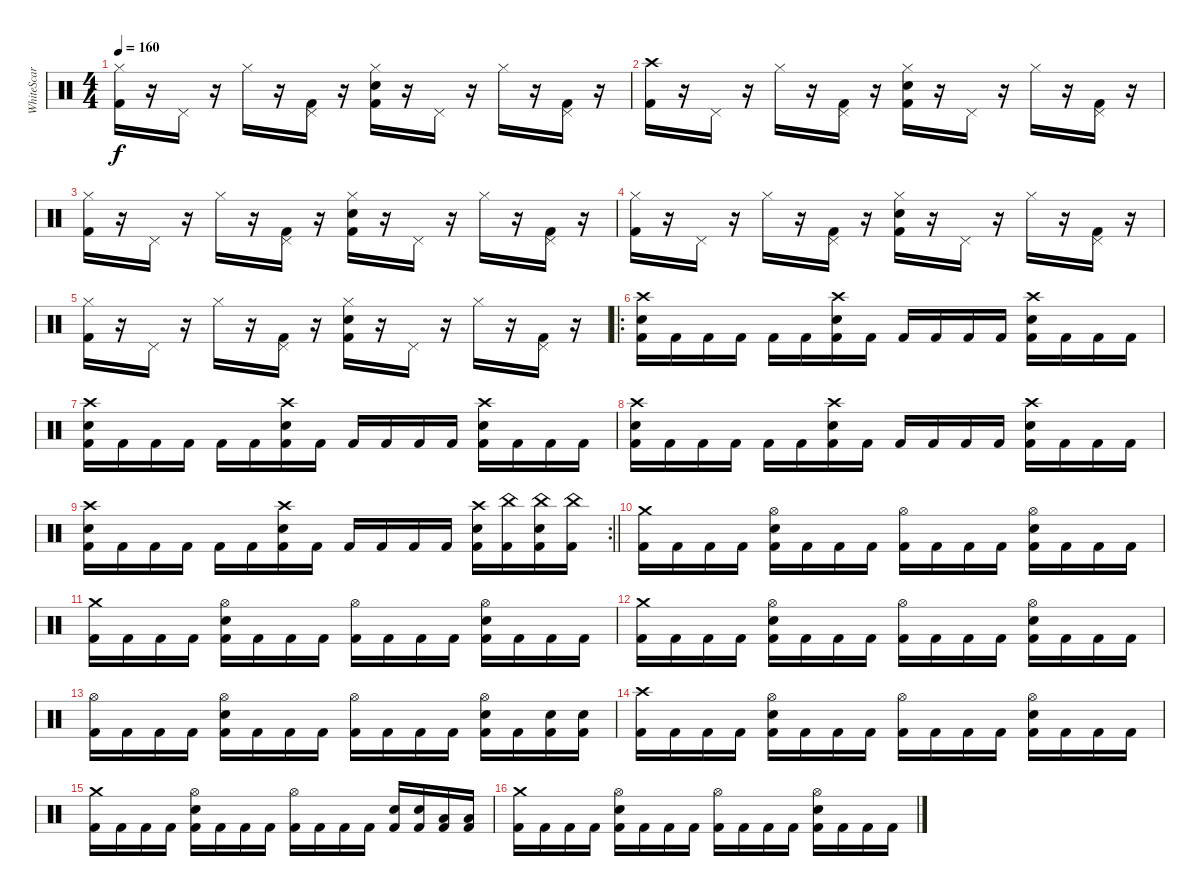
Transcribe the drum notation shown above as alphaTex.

\track ("WhiteScar" "WhiteScar") {instrument percussion}
\staff {score}
\articulation defaults
\ts (4 4)
\tempo 160
\clef neutral
\ks c
("Hi-Hat (closed)" "Kick (hit) 2").16{dy f} r.16 "Pedal Hi-Hat (hit)".16 r.16 "Hi-Hat (closed)".16 r.16 ("Pedal Hi-Hat (hit)" "Kick (hit) 2").16 r.16 ("Hi-Hat (closed)" "Snare (hit) 2" "Kick (hit) 2").16 r.16 "Pedal Hi-Hat (hit)".16 r.16 "Hi-Hat (closed)".16 r.16 ("Pedal Hi-Hat (hit)" "Kick (hit) 2").16 r.16 |
("Crash high (hit)" "Kick (hit) 2").16 r.16 "Pedal Hi-Hat (hit)".16 r.16 "Hi-Hat (closed)".16 r.16 ("Pedal Hi-Hat (hit)" "Kick (hit) 2").16 r.16 ("Hi-Hat (closed)" "Snare (hit) 2" "Kick (hit) 2").16 r.16 "Pedal Hi-Hat (hit)".16 r.16 "Hi-Hat (closed)".16 r.16 ("Pedal Hi-Hat (hit)" "Kick (hit) 2").16 r.16 |
("Hi-Hat (closed)" "Kick (hit) 2").16 r.16 "Pedal Hi-Hat (hit)".16 r.16 "Hi-Hat (closed)".16 r.16 ("Pedal Hi-Hat (hit)" "Kick (hit) 2").16 r.16 ("Hi-Hat (closed)" "Snare (hit) 2" "Kick (hit) 2").16 r.16 "Pedal Hi-Hat (hit)".16 r.16 "Hi-Hat (closed)".16 r.16 ("Pedal Hi-Hat (hit)" "Kick (hit) 2").16 r.16 |
("Hi-Hat (closed)" "Kick (hit) 2").16 r.16 "Pedal Hi-Hat (hit)".16 r.16 "Hi-Hat (closed)".16 r.16 ("Pedal Hi-Hat (hit)" "Kick (hit) 2").16 r.16 ("Hi-Hat (closed)" "Snare (hit) 2" "Kick (hit) 2").16 r.16 "Pedal Hi-Hat (hit)".16 r.16 "Hi-Hat (closed)".16 r.16 ("Pedal Hi-Hat (hit)" "Kick (hit) 2").16 r.16 |
("Hi-Hat (closed)" "Kick (hit) 2").16 r.16 "Pedal Hi-Hat (hit)".16 r.16 "Hi-Hat (closed)".16 r.16 ("Pedal Hi-Hat (hit)" "Kick (hit) 2").16 r.16 ("Hi-Hat (closed)" "Snare (hit) 2" "Kick (hit) 2").16 r.16 "Pedal Hi-Hat (hit)".16 r.16 "Hi-Hat (closed)".16 r.16 ("Pedal Hi-Hat (hit)" "Kick (hit) 2").16 r.16 |
\ro
("Crash high (hit)" "Snare (hit) 2" "Kick (hit) 2").16 "Kick (hit) 2".16 "Kick (hit) 2".16 "Kick (hit) 2".16 "Kick (hit) 2".16 "Kick (hit) 2".16 ("Crash high (hit)" "Snare (hit) 2" "Kick (hit) 2").16 "Kick (hit) 2".16 "Kick (hit) 2".16 "Kick (hit) 2".16 "Kick (hit) 2".16 "Kick (hit) 2".16 ("Crash high (hit)" "Snare (hit) 2" "Kick (hit) 2").16 "Kick (hit) 2".16 "Kick (hit) 2".16 "Kick (hit) 2".16 |
("Crash high (hit)" "Snare (hit) 2" "Kick (hit) 2").16 "Kick (hit) 2".16 "Kick (hit) 2".16 "Kick (hit) 2".16 "Kick (hit) 2".16 "Kick (hit) 2".16 ("Crash high (hit)" "Snare (hit) 2" "Kick (hit) 2").16 "Kick (hit) 2".16 "Kick (hit) 2".16 "Kick (hit) 2".16 "Kick (hit) 2".16 "Kick (hit) 2".16 ("Crash high (hit)" "Snare (hit) 2" "Kick (hit) 2").16 "Kick (hit) 2".16 "Kick (hit) 2".16 "Kick (hit) 2".16 |
("Crash high (hit)" "Snare (hit) 2" "Kick (hit) 2").16 "Kick (hit) 2".16 "Kick (hit) 2".16 "Kick (hit) 2".16 "Kick (hit) 2".16 "Kick (hit) 2".16 ("Crash high (hit)" "Snare (hit) 2" "Kick (hit) 2").16 "Kick (hit) 2".16 "Kick (hit) 2".16 "Kick (hit) 2".16 "Kick (hit) 2".16 "Kick (hit) 2".16 ("Crash high (hit)" "Snare (hit) 2" "Kick (hit) 2").16 "Kick (hit) 2".16 "Kick (hit) 2".16 "Kick (hit) 2".16 |
\rc 2
\barLineRight lightlight
("Crash high (hit)" "Snare (hit) 2" "Kick (hit) 2").16 "Kick (hit) 2".16 "Kick (hit) 2".16 "Kick (hit) 2".16 "Kick (hit) 2".16 "Kick (hit) 2".16 ("Crash high (hit)" "Snare (hit) 2" "Kick (hit) 2").16 "Kick (hit) 2".16 "Kick (hit) 2".16 "Kick (hit) 2".16 "Kick (hit) 2".16 "Kick (hit) 2".16 ("Crash high (hit)" "Snare (hit) 2" "Kick (hit) 2").16 ("China (hit)" "Kick (hit) 2").16 ("China (hit)" "Snare (hit) 2" "Kick (hit) 2").16 ("China (hit)" "Kick (hit) 2").16 |
("Crash medium (hit)" "Kick (hit) 2").16 "Kick (hit) 2".16 "Kick (hit) 2".16 "Kick (hit) 2".16 ("Hi-Hat (open)" "Snare (hit) 2" "Kick (hit) 2").16 "Kick (hit) 2".16 "Kick (hit) 2".16 "Kick (hit) 2".16 ("Hi-Hat (open)" "Kick (hit) 2").16 "Kick (hit) 2".16 "Kick (hit) 2".16 "Kick (hit) 2".16 ("Hi-Hat (open)" "Snare (hit) 2" "Kick (hit) 2").16 "Kick (hit) 2".16 "Kick (hit) 2".16 "Kick (hit) 2".16 |
("Crash medium (hit)" "Kick (hit) 2").16 "Kick (hit) 2".16 "Kick (hit) 2".16 "Kick (hit) 2".16 ("Hi-Hat (open)" "Snare (hit) 2" "Kick (hit) 2").16 "Kick (hit) 2".16 "Kick (hit) 2".16 "Kick (hit) 2".16 ("Hi-Hat (open)" "Kick (hit) 2").16 "Kick (hit) 2".16 "Kick (hit) 2".16 "Kick (hit) 2".16 ("Hi-Hat (open)" "Snare (hit) 2" "Kick (hit) 2").16 "Kick (hit) 2".16 "Kick (hit) 2".16 "Kick (hit) 2".16 |
("Crash medium (hit)" "Kick (hit) 2").16 "Kick (hit) 2".16 "Kick (hit) 2".16 "Kick (hit) 2".16 ("Hi-Hat (open)" "Snare (hit) 2" "Kick (hit) 2").16 "Kick (hit) 2".16 "Kick (hit) 2".16 "Kick (hit) 2".16 ("Hi-Hat (open)" "Kick (hit) 2").16 "Kick (hit) 2".16 "Kick (hit) 2".16 "Kick (hit) 2".16 ("Hi-Hat (open)" "Snare (hit) 2" "Kick (hit) 2").16 "Kick (hit) 2".16 "Kick (hit) 2".16 "Kick (hit) 2".16 |
("Hi-Hat (open)" "Kick (hit) 2").16 "Kick (hit) 2".16 "Kick (hit) 2".16 "Kick (hit) 2".16 ("Hi-Hat (open)" "Snare (hit) 2" "Kick (hit) 2").16 "Kick (hit) 2".16 "Kick (hit) 2".16 "Kick (hit) 2".16 ("Hi-Hat (open)" "Kick (hit) 2").16 "Kick (hit) 2".16 "Kick (hit) 2".16 "Kick (hit) 2".16 ("Hi-Hat (open)" "Snare (hit) 2" "Kick (hit) 2").16 "Kick (hit) 2".16 ("Snare (hit) 2" "Kick (hit) 2").16 ("Snare (hit) 2" "Kick (hit) 2").16 |
("Crash high (hit)" "Kick (hit) 2").16 "Kick (hit) 2".16 "Kick (hit) 2".16 "Kick (hit) 2".16 ("Hi-Hat (open)" "Snare (hit) 2" "Kick (hit) 2").16 "Kick (hit) 2".16 "Kick (hit) 2".16 "Kick (hit) 2".16 ("Hi-Hat (open)" "Kick (hit) 2").16 "Kick (hit) 2".16 "Kick (hit) 2".16 "Kick (hit) 2".16 ("Hi-Hat (open)" "Snare (hit) 2" "Kick (hit) 2").16 "Kick (hit) 2".16 "Kick (hit) 2".16 "Kick (hit) 2".16 |
("Crash medium (hit)" "Kick (hit) 2").16 "Kick (hit) 2".16 "Kick (hit) 2".16 "Kick (hit) 2".16 ("Hi-Hat (open)" "Snare (hit) 2" "Kick (hit) 2").16 "Kick (hit) 2".16 "Kick (hit) 2".16 "Kick (hit) 2".16 ("Hi-Hat (open)" "Kick (hit) 2").16 "Kick (hit) 2".16 "Kick (hit) 2".16 "Kick (hit) 2".16 ("Snare (hit) 2" "Kick (hit) 2").16 ("Snare (hit) 2" "Kick (hit) 2").16 ("Low Tom (hit)" "Kick (hit) 2").16 ("Low Tom (hit)" "Kick (hit) 2").16 |
("Crash medium (hit)" "Kick (hit) 2").16 "Kick (hit) 2".16 "Kick (hit) 2".16 "Kick (hit) 2".16 ("Hi-Hat (open)" "Snare (hit) 2" "Kick (hit) 2").16 "Kick (hit) 2".16 "Kick (hit) 2".16 "Kick (hit) 2".16 ("Hi-Hat (open)" "Kick (hit) 2").16 "Kick (hit) 2".16 "Kick (hit) 2".16 "Kick (hit) 2".16 ("Hi-Hat (open)" "Snare (hit) 2" "Kick (hit) 2").16 "Kick (hit) 2".16 "Kick (hit) 2".16 "Kick (hit) 2".16
